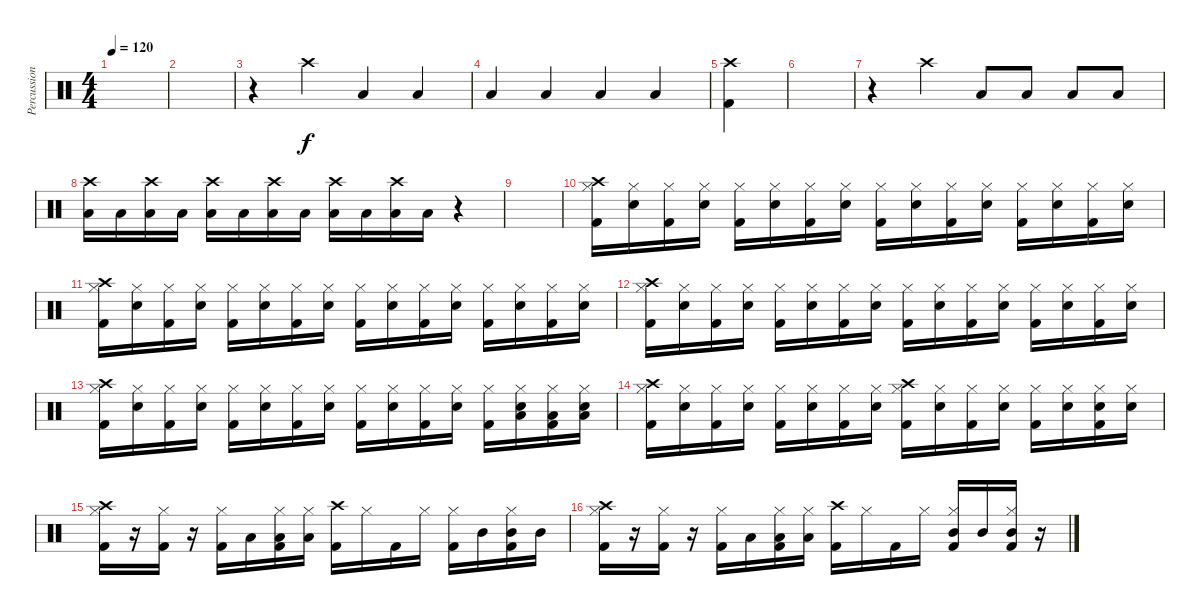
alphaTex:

\track ("Percussion" "Percussion") {instrument percussion}
\staff {score}
\articulation defaults
\ts (4 4)
\tempo 120
\clef neutral
\ks c
|
|
r.4 "Crash high (hit)".4 "Low Floor Tom (hit)".4 "Low Floor Tom (hit)".4 |
"Low Floor Tom (hit)".4 "Low Floor Tom (hit)".4 "Low Floor Tom (hit)".4 "Low Floor Tom (hit)".4 |
("Kick (hit) 2" "Crash high (hit)").4 |
|
r.4 "Crash high (hit)".4 "Low Floor Tom (hit)".8 "Low Floor Tom (hit)".8 "Low Floor Tom (hit)".8 "Low Floor Tom (hit)".8 |
("Crash high (hit)" "Low Floor Tom (hit)").16 "Low Floor Tom (hit)".16 ("Crash high (hit)" "Low Floor Tom (hit)").16 "Low Floor Tom (hit)".16 ("Crash high (hit)" "Low Floor Tom (hit)").16 "Low Floor Tom (hit)".16 ("Crash high (hit)" "Low Floor Tom (hit)").16 "Low Floor Tom (hit)".16 ("Crash high (hit)" "Low Floor Tom (hit)").16 "Low Floor Tom (hit)".16 ("Crash high (hit)" "Low Floor Tom (hit)").16 "Low Floor Tom (hit)".16 r.4 |
|
("Hi-Hat (closed)" "Kick (hit) 2" "Crash high (hit)").16 ("Hi-Hat (closed)" "Snare (hit) 2").16 ("Hi-Hat (closed)" "Kick (hit) 2").16 ("Hi-Hat (closed)" "Snare (hit) 2").16 ("Hi-Hat (closed)" "Kick (hit) 2").16 ("Hi-Hat (closed)" "Snare (hit) 2").16 ("Hi-Hat (closed)" "Kick (hit) 2").16 ("Hi-Hat (closed)" "Snare (hit) 2").16 ("Hi-Hat (closed)" "Kick (hit) 2").16 ("Hi-Hat (closed)" "Snare (hit) 2").16 ("Hi-Hat (closed)" "Kick (hit) 2").16 ("Hi-Hat (closed)" "Snare (hit) 2").16 ("Hi-Hat (closed)" "Kick (hit) 2").16 ("Hi-Hat (closed)" "Snare (hit) 2").16 ("Hi-Hat (closed)" "Kick (hit) 2").16 ("Hi-Hat (closed)" "Snare (hit) 2").16 |
("Hi-Hat (closed)" "Kick (hit) 2" "Crash high (hit)").16 ("Hi-Hat (closed)" "Snare (hit) 2").16 ("Hi-Hat (closed)" "Kick (hit) 2").16 ("Hi-Hat (closed)" "Snare (hit) 2").16 ("Hi-Hat (closed)" "Kick (hit) 2").16 ("Hi-Hat (closed)" "Snare (hit) 2").16 ("Hi-Hat (closed)" "Kick (hit) 2").16 ("Hi-Hat (closed)" "Snare (hit) 2").16 ("Hi-Hat (closed)" "Kick (hit) 2").16 ("Hi-Hat (closed)" "Snare (hit) 2").16 ("Hi-Hat (closed)" "Kick (hit) 2").16 ("Hi-Hat (closed)" "Snare (hit) 2").16 ("Hi-Hat (closed)" "Kick (hit) 2").16 ("Hi-Hat (closed)" "Snare (hit) 2").16 ("Hi-Hat (closed)" "Kick (hit) 2").16 ("Hi-Hat (closed)" "Snare (hit) 2").16 |
("Hi-Hat (closed)" "Kick (hit) 2" "Crash high (hit)").16 ("Hi-Hat (closed)" "Snare (hit) 2").16 ("Hi-Hat (closed)" "Kick (hit) 2").16 ("Hi-Hat (closed)" "Snare (hit) 2").16 ("Hi-Hat (closed)" "Kick (hit) 2").16 ("Hi-Hat (closed)" "Snare (hit) 2").16 ("Hi-Hat (closed)" "Kick (hit) 2").16 ("Hi-Hat (closed)" "Snare (hit) 2").16 ("Hi-Hat (closed)" "Kick (hit) 2").16 ("Hi-Hat (closed)" "Snare (hit) 2").16 ("Hi-Hat (closed)" "Kick (hit) 2").16 ("Hi-Hat (closed)" "Snare (hit) 2").16 ("Hi-Hat (closed)" "Kick (hit) 2").16 ("Hi-Hat (closed)" "Snare (hit) 2").16 ("Hi-Hat (closed)" "Kick (hit) 2").16 ("Hi-Hat (closed)" "Snare (hit) 2").16 |
("Hi-Hat (closed)" "Kick (hit) 2" "Crash high (hit)").16 ("Hi-Hat (closed)" "Snare (hit) 2").16 ("Hi-Hat (closed)" "Kick (hit) 2").16 ("Hi-Hat (closed)" "Snare (hit) 2").16 ("Hi-Hat (closed)" "Kick (hit) 2").16 ("Hi-Hat (closed)" "Snare (hit) 2").16 ("Hi-Hat (closed)" "Kick (hit) 2").16 ("Hi-Hat (closed)" "Snare (hit) 2").16 ("Hi-Hat (closed)" "Kick (hit) 2").16 ("Hi-Hat (closed)" "Snare (hit) 2").16 ("Hi-Hat (closed)" "Kick (hit) 2").16 ("Hi-Hat (closed)" "Snare (hit) 2").16 ("Hi-Hat (closed)" "Kick (hit) 2").16 ("Hi-Hat (closed)" "Snare (hit) 2" "Low Floor Tom (hit)").16 ("Hi-Hat (closed)" "Kick (hit) 2" "Low Floor Tom (hit)").16 ("Hi-Hat (closed)" "Snare (hit) 2" "Low Floor Tom (hit)").16 |
("Hi-Hat (closed)" "Kick (hit) 2" "Crash high (hit)").16 ("Hi-Hat (closed)" "Snare (hit) 2").16 ("Hi-Hat (closed)" "Kick (hit) 2").16 ("Hi-Hat (closed)" "Snare (hit) 2").16 ("Hi-Hat (closed)" "Kick (hit) 2").16 ("Hi-Hat (closed)" "Snare (hit) 2").16 ("Hi-Hat (closed)" "Kick (hit) 2").16 ("Hi-Hat (closed)" "Snare (hit) 2").16 ("Hi-Hat (closed)" "Kick (hit) 2" "Crash high (hit)").16 ("Hi-Hat (closed)" "Snare (hit) 2").16 ("Hi-Hat (closed)" "Kick (hit) 2").16 ("Hi-Hat (closed)" "Snare (hit) 2").16 ("Hi-Hat (closed)" "Kick (hit) 2").16 ("Hi-Hat (closed)" "Snare (hit) 2").16 ("Hi-Hat (closed)" "Kick (hit) 2" "Snare (hit) 2").16 ("Hi-Hat (closed)" "Snare (hit) 2").16 |
("Hi-Hat (closed)" "Kick (hit) 2" "Crash high (hit)").16 r.16 ("Hi-Hat (closed)" "Kick (hit) 2").16 r.16 ("Hi-Hat (closed)" "Kick (hit) 2").16 "Low Floor Tom (hit)".16 ("Hi-Hat (closed)" "Kick (hit) 2" "Low Floor Tom (hit)").16 ("Hi-Hat (closed)" "Low Floor Tom (hit)").16 ("Kick (hit) 2" "Crash high (hit)").16 "Hi-Hat (closed)".16 "Kick (hit) 2".16 "Hi-Hat (closed)".16 ("Hi-Hat (closed)" "Kick (hit) 2").16 "Mid Tom (hit)".16 ("Hi-Hat (closed)" "Kick (hit) 2" "Mid Tom (hit)").16 "Mid Tom (hit)".16 |
("Hi-Hat (closed)" "Kick (hit) 2" "Crash high (hit)").16 r.16 ("Hi-Hat (closed)" "Kick (hit) 2").16 r.16 ("Hi-Hat (closed)" "Kick (hit) 2").16 "Low Floor Tom (hit)".16 ("Hi-Hat (closed)" "Kick (hit) 2" "Low Floor Tom (hit)").16 ("Hi-Hat (closed)" "Low Floor Tom (hit)").16 ("Kick (hit) 2" "Crash high (hit)").16 "Hi-Hat (closed)".16 "Kick (hit) 2".16 "Hi-Hat (closed)".16 ("Hi-Hat (closed)" "Kick (hit) 2" "Mid Tom (hit)").16 "Mid Tom (hit)".16 ("Hi-Hat (closed)" "Kick (hit) 2" "Mid Tom (hit)").16 r.16
